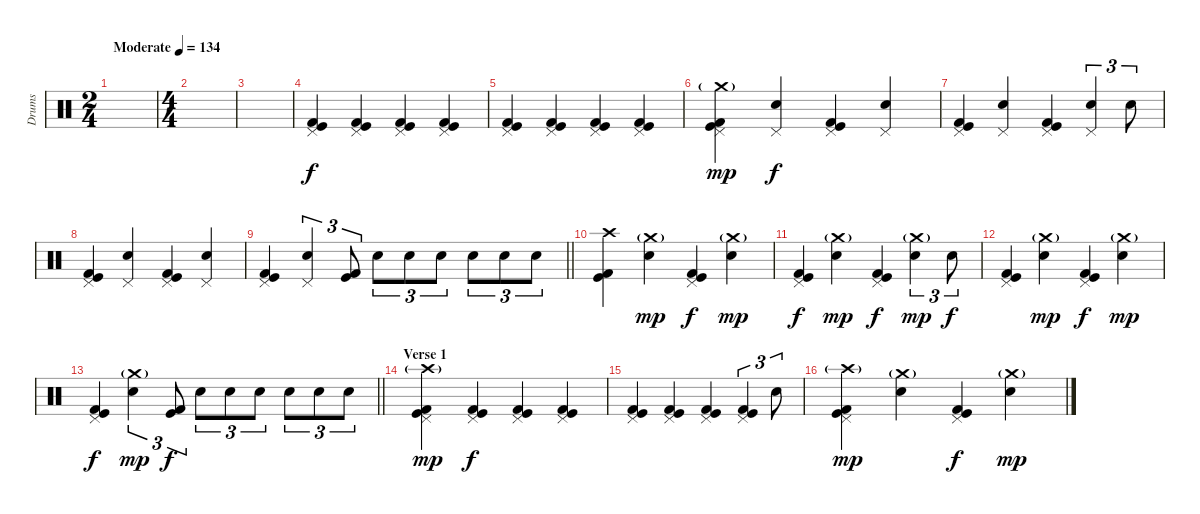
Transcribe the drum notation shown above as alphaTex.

\track ("Drums" "Drums") {instrument percussion}
\staff {score}
\articulation defaults
\ts (2 4)
\tempo (134 "Moderate")
\clef neutral
\ks c
|
\ts (4 4)
|
|
("Pedal Hi-Hat (hit)" "Kick (hit)" "Kick (hit) 2").4 ("Pedal Hi-Hat (hit)" "Kick (hit)" "Kick (hit) 2").4 ("Pedal Hi-Hat (hit)" "Kick (hit)" "Kick (hit) 2").4 ("Pedal Hi-Hat (hit)" "Kick (hit)" "Kick (hit) 2").4 |
("Pedal Hi-Hat (hit)" "Kick (hit)" "Kick (hit) 2").4 ("Pedal Hi-Hat (hit)" "Kick (hit)" "Kick (hit) 2").4 ("Pedal Hi-Hat (hit)" "Kick (hit)" "Kick (hit) 2").4 ("Pedal Hi-Hat (hit)" "Kick (hit)" "Kick (hit) 2").4 |
("Pedal Hi-Hat (hit)" "Crash medium (hit)"{g} "Kick (hit)" "Kick (hit) 2").4{dy mp} ("Pedal Hi-Hat (hit)" "Electric Snare (hit)").4{dy f} ("Pedal Hi-Hat (hit)" "Kick (hit)" "Kick (hit) 2").4 ("Pedal Hi-Hat (hit)" "Electric Snare (hit)").4 |
("Pedal Hi-Hat (hit)" "Kick (hit)" "Kick (hit) 2").4 ("Pedal Hi-Hat (hit)" "Electric Snare (hit)").4 ("Pedal Hi-Hat (hit)" "Kick (hit)" "Kick (hit) 2").4 ("Pedal Hi-Hat (hit)" "Electric Snare (hit)").4{tu (3 2)} "Electric Snare (hit)".8{tu (3 2)} |
("Pedal Hi-Hat (hit)" "Kick (hit)" "Kick (hit) 2").4 ("Pedal Hi-Hat (hit)" "Electric Snare (hit)").4 ("Pedal Hi-Hat (hit)" "Kick (hit)" "Kick (hit) 2").4 ("Pedal Hi-Hat (hit)" "Electric Snare (hit)").4 |
\barLineRight lightlight
("Pedal Hi-Hat (hit)" "Kick (hit)" "Kick (hit) 2").4 ("Pedal Hi-Hat (hit)" "Electric Snare (hit)").4{tu (3 2)} ("Kick (hit)" "Kick (hit) 2").8{tu (3 2)} "Electric Snare (hit)".8{tu (3 2)} "Electric Snare (hit)".8{tu (3 2)} "Electric Snare (hit)".8{tu (3 2)} "Electric Snare (hit)".8{tu (3 2)} "Electric Snare (hit)".8{tu (3 2)} "Electric Snare (hit)".8{tu (3 2)} |
\section ("" "")
("Crash high (hit)" "Kick (hit)" "Kick (hit) 2").4 ("Crash medium (hit)"{g} "Electric Snare (hit)").4{dy mp} ("Pedal Hi-Hat (hit)" "Kick (hit)" "Kick (hit) 2").4{dy f} ("Crash medium (hit)"{g} "Electric Snare (hit)").4{dy mp} |
("Pedal Hi-Hat (hit)" "Kick (hit)" "Kick (hit) 2").4{dy f} ("Crash medium (hit)"{g} "Electric Snare (hit)").4{dy mp} ("Pedal Hi-Hat (hit)" "Kick (hit)" "Kick (hit) 2").4{dy f} ("Crash medium (hit)"{g} "Electric Snare (hit)").4{tu (3 2) dy mp} "Electric Snare (hit)".8{tu (3 2) dy f} |
("Pedal Hi-Hat (hit)" "Kick (hit)" "Kick (hit) 2").4 ("Crash medium (hit)"{g} "Electric Snare (hit)").4{dy mp} ("Pedal Hi-Hat (hit)" "Kick (hit)" "Kick (hit) 2").4{dy f} ("Crash medium (hit)"{g} "Electric Snare (hit)").4{dy mp} |
\barLineRight lightlight
("Pedal Hi-Hat (hit)" "Kick (hit)" "Kick (hit) 2").4{dy f} ("Crash medium (hit)"{g} "Electric Snare (hit)").4{tu (3 2) dy mp} ("Kick (hit)" "Kick (hit) 2").8{tu (3 2) dy f} "Electric Snare (hit)".8{tu (3 2)} "Electric Snare (hit)".8{tu (3 2)} "Electric Snare (hit)".8{tu (3 2)} "Electric Snare (hit)".8{tu (3 2)} "Electric Snare (hit)".8{tu (3 2)} "Electric Snare (hit)".8{tu (3 2)} |
\section ("" "Verse 1")
("Pedal Hi-Hat (hit)" "Crash high (hit)"{g} "Kick (hit)" "Kick (hit) 2").4{dy mp} ("Pedal Hi-Hat (hit)" "Kick (hit)" "Kick (hit) 2").4{dy f} ("Pedal Hi-Hat (hit)" "Kick (hit)" "Kick (hit) 2").4 ("Pedal Hi-Hat (hit)" "Kick (hit)" "Kick (hit) 2").4 |
("Pedal Hi-Hat (hit)" "Kick (hit)" "Kick (hit) 2").4 ("Pedal Hi-Hat (hit)" "Kick (hit)" "Kick (hit) 2").4 ("Pedal Hi-Hat (hit)" "Kick (hit)" "Kick (hit) 2").4 ("Pedal Hi-Hat (hit)" "Kick (hit)" "Kick (hit) 2").4{tu (3 2)} "Electric Snare (hit)".8{tu (3 2)} |
("Pedal Hi-Hat (hit)" "Crash high (hit)"{g} "Kick (hit)" "Kick (hit) 2").4{dy mp} ("Crash medium (hit)"{g} "Electric Snare (hit)").4 ("Pedal Hi-Hat (hit)" "Kick (hit)" "Kick (hit) 2").4{dy f} ("Crash medium (hit)"{g} "Electric Snare (hit)").4{dy mp}
